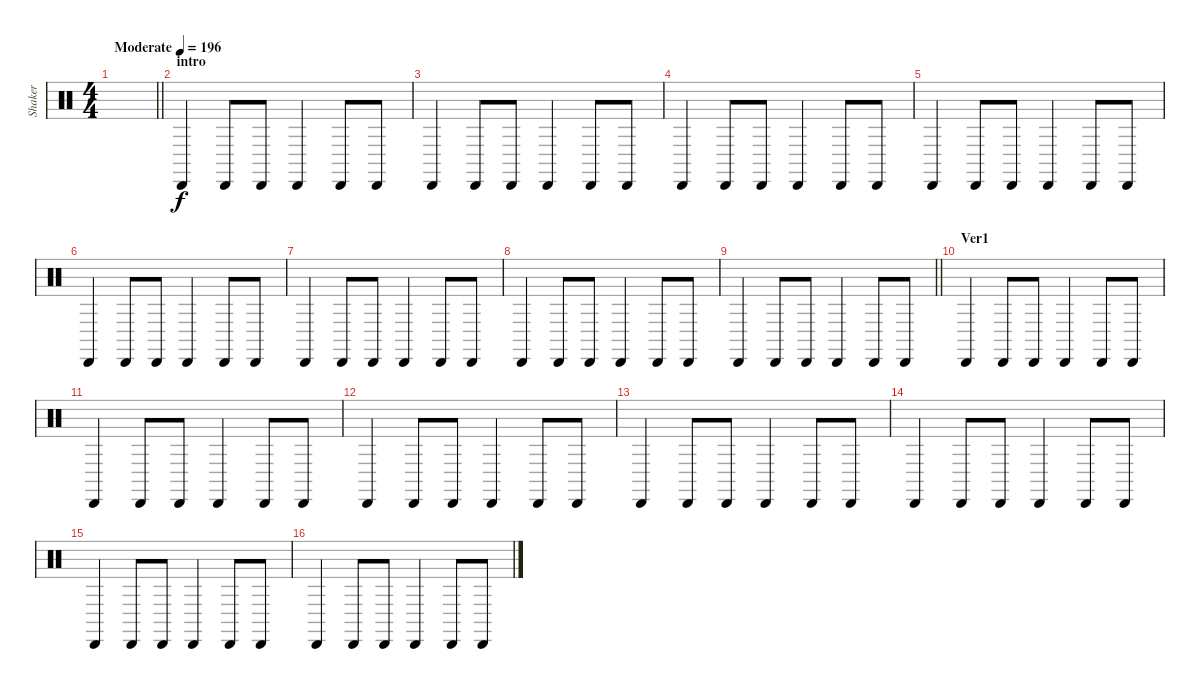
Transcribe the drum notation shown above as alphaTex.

\track ("Shaker" "Shaker") {instrument percussion bank 126}
\staff {score}
\articulation defaults
\ts (4 4)
\tempo (196 "Moderate")
\clef neutral
\barLineRight lightlight
\ks c
|
\section ("" "intro")
"Cabasa (hit)".4 "Cabasa (hit)".8 "Cabasa (hit)".8 "Cabasa (hit)".4 "Cabasa (hit)".8 "Cabasa (hit)".8 |
"Cabasa (hit)".4 "Cabasa (hit)".8 "Cabasa (hit)".8 "Cabasa (hit)".4 "Cabasa (hit)".8 "Cabasa (hit)".8 |
"Cabasa (hit)".4 "Cabasa (hit)".8 "Cabasa (hit)".8 "Cabasa (hit)".4 "Cabasa (hit)".8 "Cabasa (hit)".8 |
"Cabasa (hit)".4 "Cabasa (hit)".8 "Cabasa (hit)".8 "Cabasa (hit)".4 "Cabasa (hit)".8 "Cabasa (hit)".8 |
"Cabasa (hit)".4 "Cabasa (hit)".8 "Cabasa (hit)".8 "Cabasa (hit)".4 "Cabasa (hit)".8 "Cabasa (hit)".8 |
"Cabasa (hit)".4 "Cabasa (hit)".8 "Cabasa (hit)".8 "Cabasa (hit)".4 "Cabasa (hit)".8 "Cabasa (hit)".8 |
"Cabasa (hit)".4 "Cabasa (hit)".8 "Cabasa (hit)".8 "Cabasa (hit)".4 "Cabasa (hit)".8 "Cabasa (hit)".8 |
\barLineRight lightlight "Cabasa (hit)".4 "Cabasa (hit)".8 "Cabasa (hit)".8 "Cabasa (hit)".4 "Cabasa (hit)".8 "Cabasa (hit)".8
|
\section ("" "Ver1")
"Cabasa (hit)".4 "Cabasa (hit)".8 "Cabasa (hit)".8 "Cabasa (hit)".4 "Cabasa (hit)".8 "Cabasa (hit)".8 |
"Cabasa (hit)".4 "Cabasa (hit)".8 "Cabasa (hit)".8 "Cabasa (hit)".4 "Cabasa (hit)".8 "Cabasa (hit)".8 |
"Cabasa (hit)".4 "Cabasa (hit)".8 "Cabasa (hit)".8 "Cabasa (hit)".4 "Cabasa (hit)".8 "Cabasa (hit)".8 |
"Cabasa (hit)".4 "Cabasa (hit)".8 "Cabasa (hit)".8 "Cabasa (hit)".4 "Cabasa (hit)".8 "Cabasa (hit)".8 |
"Cabasa (hit)".4 "Cabasa (hit)".8 "Cabasa (hit)".8 "Cabasa (hit)".4 "Cabasa (hit)".8 "Cabasa (hit)".8 |
"Cabasa (hit)".4 "Cabasa (hit)".8 "Cabasa (hit)".8 "Cabasa (hit)".4 "Cabasa (hit)".8 "Cabasa (hit)".8 |
"Cabasa (hit)".4 "Cabasa (hit)".8 "Cabasa (hit)".8 "Cabasa (hit)".4 "Cabasa (hit)".8 "Cabasa (hit)".8
